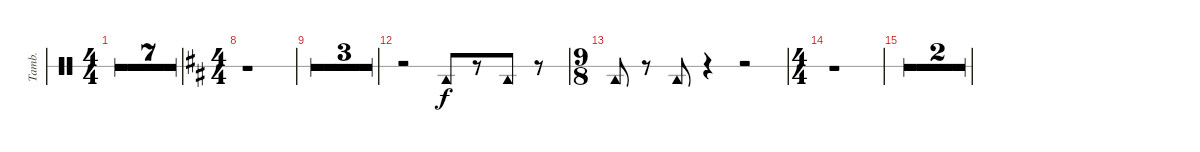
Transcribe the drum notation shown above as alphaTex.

\defaultSystemsLayout 4
\bracketExtendMode groupsimilarinstruments
\otherSystemsTrackNameOrientation horizontal
\track ("Tambourine" "Tamb.") {multiBarRest instrument percussion}
\staff {score 1}
\articulation defaults
\ts (4 4)
\tempo 132
\clef neutral
\ks c
r.1{dy f} |
r.1 |
r.1 |
r.1 |
r.1 |
r.1 |
\ts (9 8)
\beaming (8 2 2 3)
\barLineRight lightlight
r.1 r.8 |
\ts (4 4)
\beaming (8 2 2 3)
\ks d
r.1 |
r.1 |
r.1 |
r.1 |
r.2 "Tambourine (hit)"{acc forcenatural}.8 r.8 "Tambourine (hit)"{acc forcenatural}.8 r.8 |
\ts (9 8)
\beaming (8 2 2 3)
"Tambourine (hit)"{acc forcenatural}.8 r.8 "Tambourine (hit)"{acc forcenatural}.8 r.4 r.2 |
\ts (4 4)
\beaming (8 2 2 2 2)
r.1 |
r.1 |
r.1
